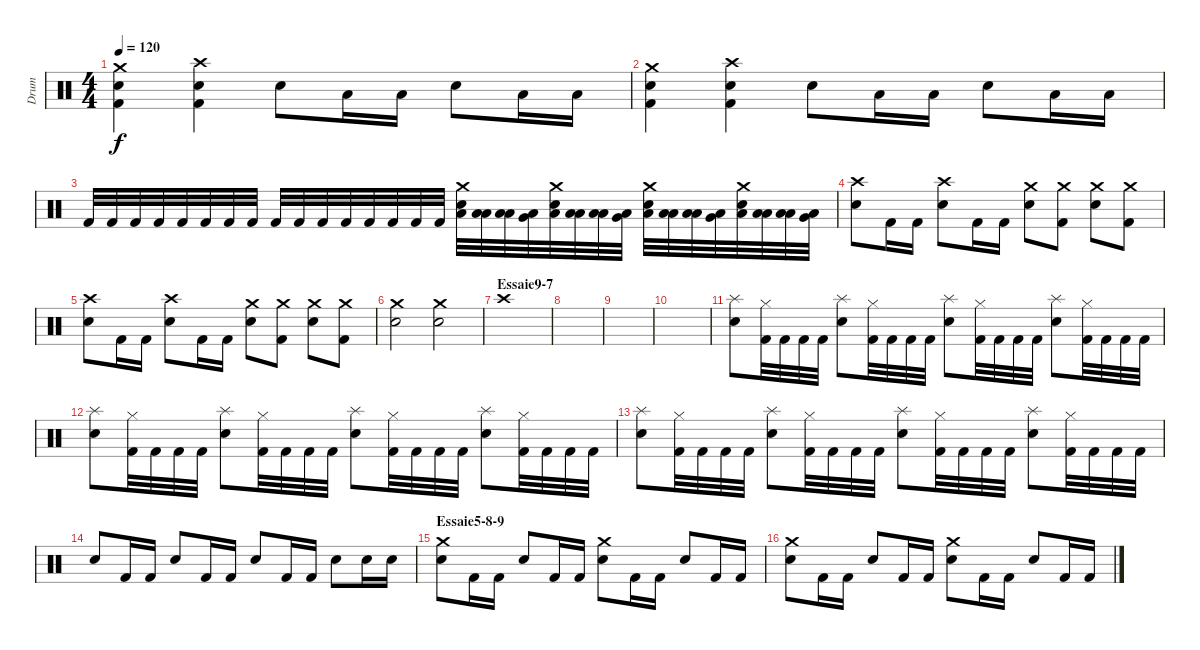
\track ("Drum" "Drum") {instrument percussion}
\staff {score}
\articulation defaults
\ts (4 4)
\tempo 120
\clef neutral
\ks c
("Crash medium (hit)" "Snare (hit) 2" "Kick (hit) 2").4{dy f} ("Crash high (hit)" "Snare (hit) 2" "Kick (hit) 2").4 "Snare (hit) 2".8 "Low Tom (hit)".16 "Low Tom (hit)".16 "Snare (hit) 2".8 "Low Tom (hit)".16 "Low Tom (hit)".16 |
("Crash medium (hit)" "Snare (hit) 2" "Kick (hit) 2").4 ("Crash high (hit)" "Snare (hit) 2" "Kick (hit) 2").4 "Snare (hit) 2".8 "Low Tom (hit)".16 "Low Tom (hit)".16 "Snare (hit) 2".8 "Low Tom (hit)".16 "Low Tom (hit)".16 |
"Kick (hit) 2".32 "Kick (hit) 2".32 "Kick (hit) 2".32 "Kick (hit) 2".32 "Kick (hit) 2".32 "Kick (hit) 2".32 "Kick (hit) 2".32 "Kick (hit) 2".32 "Kick (hit) 2".32 "Kick (hit) 2".32 "Kick (hit) 2".32 "Kick (hit) 2".32 "Kick (hit) 2".32 "Kick (hit) 2".32 "Kick (hit) 2".32 "Kick (hit) 2".32 ("Crash medium (hit)" "Snare (hit) 2" "Low Tom (hit)").32 ("Low Tom (hit)" "Low Tom (hit)").32 ("Low Tom (hit)" "Low Tom (hit)").32 ("Very Low Tom (hit)" "Low Tom (hit)").32 ("Crash medium (hit)" "Snare (hit) 2" "Low Tom (hit)").32 ("Low Tom (hit)" "Low Tom (hit)").32 ("Low Tom (hit)" "Low Tom (hit)").32 ("Very Low Tom (hit)" "Low Tom (hit)").32 ("Crash medium (hit)" "Snare (hit) 2" "Low Tom (hit)").32 ("Low Tom (hit)" "Low Tom (hit)").32 ("Low Tom (hit)" "Low Tom (hit)").32 ("Very Low Tom (hit)" "Low Tom (hit)").32 ("Crash medium (hit)" "Snare (hit) 2" "Low Tom (hit)").32 ("Low Tom (hit)" "Low Tom (hit)").32 ("Low Tom (hit)" "Low Tom (hit)").32 ("Very Low Tom (hit)" "Low Tom (hit)").32 |
("Crash high (hit)" "Electric Snare (hit)").8 "Kick (hit) 2".16 "Kick (hit) 2".16 ("Crash high (hit)" "Electric Snare (hit)").8 "Kick (hit) 2".16 "Kick (hit) 2".16 ("Crash medium (hit)" "Electric Snare (hit)").8 ("Crash medium (hit)" "Kick (hit) 2").8 ("Crash medium (hit)" "Electric Snare (hit)").8 ("Crash medium (hit)" "Kick (hit) 2").8 |
("Crash high (hit)" "Electric Snare (hit)").8 "Kick (hit) 2".16 "Kick (hit) 2".16 ("Crash high (hit)" "Electric Snare (hit)").8 "Kick (hit) 2".16 "Kick (hit) 2".16 ("Crash medium (hit)" "Electric Snare (hit)").8 ("Crash medium (hit)" "Kick (hit) 2").8 ("Crash medium (hit)" "Electric Snare (hit)").8 ("Crash medium (hit)" "Kick (hit) 2").8 |
("Crash medium (hit)" "Snare (hit) 2").2 ("Crash medium (hit)" "Snare (hit) 2").2 |
\section ("" "Essaie9-7")
"Crash high (hit)".1 |
|
|
|
("Splash (hit)" "Snare (hit) 2").8 ("Hi-Hat (closed)" "Kick (hit) 2").32 "Kick (hit) 2".32 "Kick (hit) 2".32 "Kick (hit) 2".32 ("Splash (hit)" "Snare (hit) 2").8 ("Hi-Hat (closed)" "Kick (hit) 2").32 "Kick (hit) 2".32 "Kick (hit) 2".32 "Kick (hit) 2".32 ("Splash (hit)" "Snare (hit) 2").8 ("Hi-Hat (closed)" "Kick (hit) 2").32 "Kick (hit) 2".32 "Kick (hit) 2".32 "Kick (hit) 2".32 ("Splash (hit)" "Snare (hit) 2").8 ("Hi-Hat (closed)" "Kick (hit) 2").32 "Kick (hit) 2".32 "Kick (hit) 2".32 "Kick (hit) 2".32 |
("Splash (hit)" "Snare (hit) 2").8 ("Hi-Hat (closed)" "Kick (hit) 2").32 "Kick (hit) 2".32 "Kick (hit) 2".32 "Kick (hit) 2".32 ("Splash (hit)" "Snare (hit) 2").8 ("Hi-Hat (closed)" "Kick (hit) 2").32 "Kick (hit) 2".32 "Kick (hit) 2".32 "Kick (hit) 2".32 ("Splash (hit)" "Snare (hit) 2").8 ("Hi-Hat (closed)" "Kick (hit) 2").32 "Kick (hit) 2".32 "Kick (hit) 2".32 "Kick (hit) 2".32 ("Splash (hit)" "Snare (hit) 2").8 ("Hi-Hat (closed)" "Kick (hit) 2").32 "Kick (hit) 2".32 "Kick (hit) 2".32 "Kick (hit) 2".32 |
("Splash (hit)" "Snare (hit) 2").8 ("Hi-Hat (closed)" "Kick (hit) 2").32 "Kick (hit) 2".32 "Kick (hit) 2".32 "Kick (hit) 2".32 ("Splash (hit)" "Snare (hit) 2").8 ("Hi-Hat (closed)" "Kick (hit) 2").32 "Kick (hit) 2".32 "Kick (hit) 2".32 "Kick (hit) 2".32 ("Splash (hit)" "Snare (hit) 2").8 ("Hi-Hat (closed)" "Kick (hit) 2").32 "Kick (hit) 2".32 "Kick (hit) 2".32 "Kick (hit) 2".32 ("Splash (hit)" "Snare (hit) 2").8 ("Hi-Hat (closed)" "Kick (hit) 2").32 "Kick (hit) 2".32 "Kick (hit) 2".32 "Kick (hit) 2".32 |
"Snare (hit) 2".8 "Kick (hit) 2".16 "Kick (hit) 2".16 "Snare (hit) 2".8 "Kick (hit) 2".16 "Kick (hit) 2".16 "Snare (hit) 2".8 "Kick (hit) 2".16 "Kick (hit) 2".16 "Snare (hit) 2".8 "Snare (hit) 2".16 "Snare (hit) 2".16 |
\section ("" "Essaie5-8-9")
("Crash medium (hit)" "Snare (hit) 2").8 "Kick (hit) 2".16 "Kick (hit) 2".16 "Snare (hit) 2".8 "Kick (hit) 2".16 "Kick (hit) 2".16 ("Crash medium (hit)" "Snare (hit) 2").8 "Kick (hit) 2".16 "Kick (hit) 2".16 "Snare (hit) 2".8 "Kick (hit) 2".16 "Kick (hit) 2".16 |
("Crash medium (hit)" "Snare (hit) 2").8 "Kick (hit) 2".16 "Kick (hit) 2".16 "Snare (hit) 2".8 "Kick (hit) 2".16 "Kick (hit) 2".16 ("Crash medium (hit)" "Snare (hit) 2").8 "Kick (hit) 2".16 "Kick (hit) 2".16 "Snare (hit) 2".8 "Kick (hit) 2".16 "Kick (hit) 2".16
